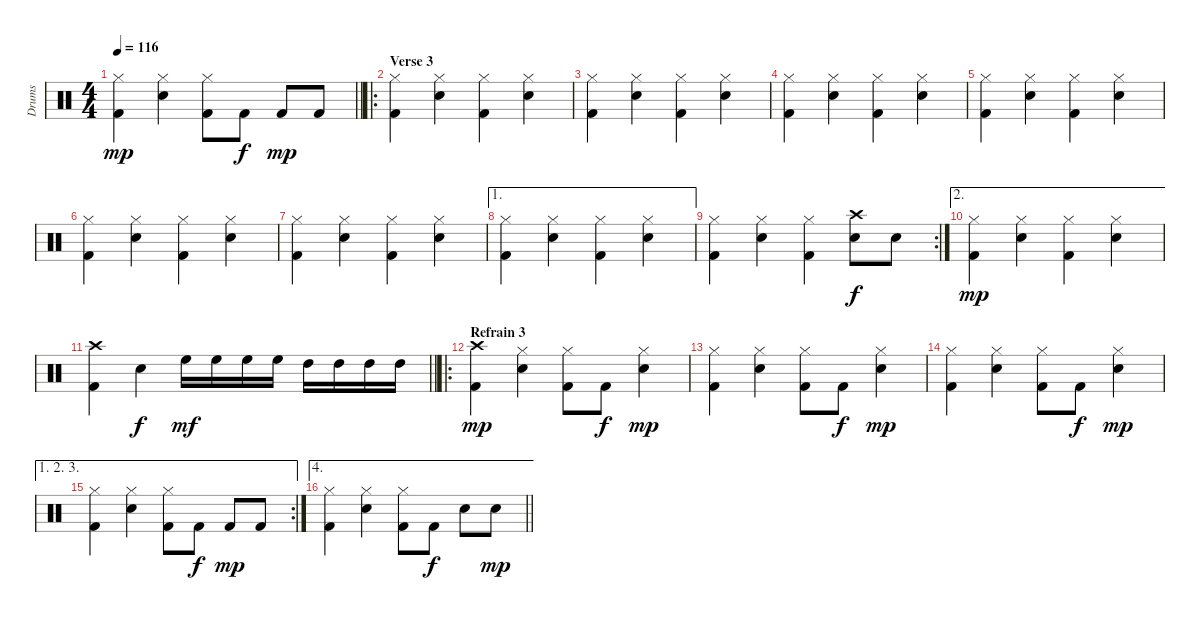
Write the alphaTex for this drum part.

\track ("Drums" "Drums") {instrument percussion}
\staff {score}
\articulation defaults
\ts (4 4)
\tempo 116
\clef neutral
\barLineRight lightlight
\ks c
("Hi-Hat (closed)" "Kick (hit) 2").4{dy mp} ("Hi-Hat (closed)" "Snare (hit) 2").4 ("Hi-Hat (closed)" "Kick (hit) 2").8 "Kick (hit) 2".8{dy f} "Kick (hit) 2".8{dy mp} "Kick (hit) 2".8 |
\ro
\section ("" "Verse 3")
("Hi-Hat (closed)" "Kick (hit) 2").4 ("Hi-Hat (closed)" "Snare (hit) 2").4 ("Hi-Hat (closed)" "Kick (hit) 2").4 ("Hi-Hat (closed)" "Snare (hit) 2").4 |
("Hi-Hat (closed)" "Kick (hit) 2").4 ("Hi-Hat (closed)" "Snare (hit) 2").4 ("Hi-Hat (closed)" "Kick (hit) 2").4 ("Hi-Hat (closed)" "Snare (hit) 2").4 |
("Hi-Hat (closed)" "Kick (hit) 2").4 ("Hi-Hat (closed)" "Snare (hit) 2").4 ("Hi-Hat (closed)" "Kick (hit) 2").4 ("Hi-Hat (closed)" "Snare (hit) 2").4 |
("Hi-Hat (closed)" "Kick (hit) 2").4 ("Hi-Hat (closed)" "Snare (hit) 2").4 ("Hi-Hat (closed)" "Kick (hit) 2").4 ("Hi-Hat (closed)" "Snare (hit) 2").4 |
("Hi-Hat (closed)" "Kick (hit) 2").4 ("Hi-Hat (closed)" "Snare (hit) 2").4 ("Hi-Hat (closed)" "Kick (hit) 2").4 ("Hi-Hat (closed)" "Snare (hit) 2").4 |
("Hi-Hat (closed)" "Kick (hit) 2").4 ("Hi-Hat (closed)" "Snare (hit) 2").4 ("Hi-Hat (closed)" "Kick (hit) 2").4 ("Hi-Hat (closed)" "Snare (hit) 2").4 |
\ae 1
("Hi-Hat (closed)" "Kick (hit) 2").4 ("Hi-Hat (closed)" "Snare (hit) 2").4 ("Hi-Hat (closed)" "Kick (hit) 2").4 ("Hi-Hat (closed)" "Snare (hit) 2").4 |
\rc 2
("Hi-Hat (closed)" "Kick (hit) 2").4 ("Hi-Hat (closed)" "Snare (hit) 2").4 ("Hi-Hat (closed)" "Kick (hit) 2").4 ("Crash high (hit)" "Snare (hit) 2").8{dy f} "Electric Snare (hit)".8 |
\ae 2
("Hi-Hat (closed)" "Kick (hit) 2").4{dy mp} ("Hi-Hat (closed)" "Snare (hit) 2").4 ("Hi-Hat (closed)" "Kick (hit) 2").4 ("Hi-Hat (closed)" "Snare (hit) 2").4 |
\barLineRight lightlight
("Crash high (hit)" "Kick (hit) 2").4 "Snare (hit) 2".4{dy f} "High Floor Tom (hit)".16{dy mf} "High Floor Tom (hit)".16 "High Floor Tom (hit)".16 "High Floor Tom (hit)".16 "High Tom (hit)".16 "High Tom (hit)".16 "High Tom (hit)".16 "High Tom (hit)".16 |
\ro
\section ("" "Refrain 3")
("Crash high (hit)" "Kick (hit) 2").4{dy mp} ("Hi-Hat (closed)" "Snare (hit) 2").4 ("Hi-Hat (closed)" "Kick (hit) 2").8 "Kick (hit) 2".8{dy f} ("Hi-Hat (closed)" "Snare (hit) 2").4{dy mp} |
("Hi-Hat (closed)" "Kick (hit) 2").4 ("Hi-Hat (closed)" "Snare (hit) 2").4 ("Hi-Hat (closed)" "Kick (hit) 2").8 "Kick (hit) 2".8{dy f} ("Hi-Hat (closed)" "Snare (hit) 2").4{dy mp} |
("Hi-Hat (closed)" "Kick (hit) 2").4 ("Hi-Hat (closed)" "Snare (hit) 2").4 ("Hi-Hat (closed)" "Kick (hit) 2").8 "Kick (hit) 2".8{dy f} ("Hi-Hat (closed)" "Snare (hit) 2").4{dy mp} |
\ae (1 2 3)
\rc 2
("Hi-Hat (closed)" "Kick (hit) 2").4 ("Hi-Hat (closed)" "Snare (hit) 2").4 ("Hi-Hat (closed)" "Kick (hit) 2").8 "Kick (hit) 2".8{dy f} "Kick (hit) 2".8{dy mp} "Kick (hit) 2".8 |
\ae 4
\barLineRight lightlight
("Hi-Hat (closed)" "Kick (hit) 2").4 ("Hi-Hat (closed)" "Snare (hit) 2").4 ("Hi-Hat (closed)" "Kick (hit) 2").8 "Kick (hit) 2".8{dy f} "Snare (hit) 2".8 "Snare (hit) 2".8{dy mp}
